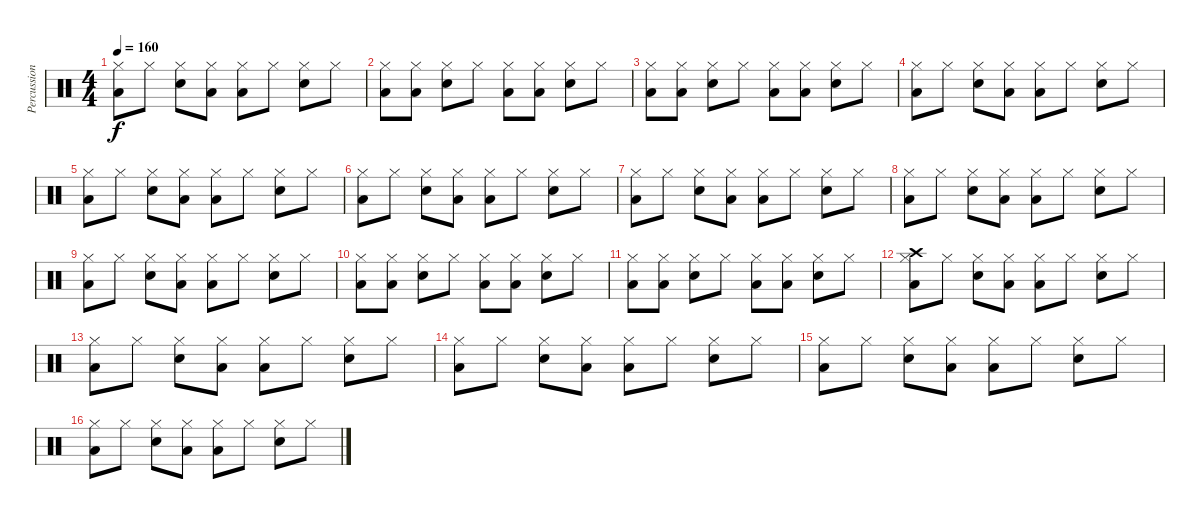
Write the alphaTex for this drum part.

\track ("Percussions" "Percussion") {instrument percussion}
\staff {score}
\articulation defaults
\ts (4 4)
\tempo 160
\clef neutral
\ks c
("Low Floor Tom (hit)" "Hi-Hat (closed)").8{dy f} "Hi-Hat (closed)".8 ("Electric Snare (hit)" "Hi-Hat (closed)").8 ("Low Floor Tom (hit)" "Hi-Hat (closed)").8 ("Low Floor Tom (hit)" "Hi-Hat (closed)").8 "Hi-Hat (closed)".8 ("Electric Snare (hit)" "Hi-Hat (closed)").8 "Hi-Hat (closed)".8 |
("Low Floor Tom (hit)" "Hi-Hat (closed)").8 ("Low Floor Tom (hit)" "Hi-Hat (closed)").8 ("Electric Snare (hit)" "Hi-Hat (closed)").8 "Hi-Hat (closed)".8 ("Low Floor Tom (hit)" "Hi-Hat (closed)").8 ("Low Floor Tom (hit)" "Hi-Hat (closed)").8 ("Electric Snare (hit)" "Hi-Hat (closed)").8 "Hi-Hat (closed)".8 |
("Low Floor Tom (hit)" "Hi-Hat (closed)").8 ("Low Floor Tom (hit)" "Hi-Hat (closed)").8 ("Electric Snare (hit)" "Hi-Hat (closed)").8 "Hi-Hat (closed)".8 ("Low Floor Tom (hit)" "Hi-Hat (closed)").8 ("Low Floor Tom (hit)" "Hi-Hat (closed)").8 ("Electric Snare (hit)" "Hi-Hat (closed)").8 "Hi-Hat (closed)".8 |
("Low Floor Tom (hit)" "Hi-Hat (closed)").8 "Hi-Hat (closed)".8 ("Electric Snare (hit)" "Hi-Hat (closed)").8 ("Low Floor Tom (hit)" "Hi-Hat (closed)").8 ("Low Floor Tom (hit)" "Hi-Hat (closed)").8 "Hi-Hat (closed)".8 ("Electric Snare (hit)" "Hi-Hat (closed)").8 "Hi-Hat (closed)".8 |
("Low Floor Tom (hit)" "Hi-Hat (closed)").8 "Hi-Hat (closed)".8 ("Electric Snare (hit)" "Hi-Hat (closed)").8 ("Low Floor Tom (hit)" "Hi-Hat (closed)").8 ("Low Floor Tom (hit)" "Hi-Hat (closed)").8 "Hi-Hat (closed)".8 ("Electric Snare (hit)" "Hi-Hat (closed)").8 "Hi-Hat (closed)".8 |
("Low Floor Tom (hit)" "Hi-Hat (closed)").8 "Hi-Hat (closed)".8 ("Electric Snare (hit)" "Hi-Hat (closed)").8 ("Low Floor Tom (hit)" "Hi-Hat (closed)").8 ("Low Floor Tom (hit)" "Hi-Hat (closed)").8 "Hi-Hat (closed)".8 ("Electric Snare (hit)" "Hi-Hat (closed)").8 "Hi-Hat (closed)".8 |
("Low Floor Tom (hit)" "Hi-Hat (closed)").8 "Hi-Hat (closed)".8 ("Electric Snare (hit)" "Hi-Hat (closed)").8 ("Low Floor Tom (hit)" "Hi-Hat (closed)").8 ("Low Floor Tom (hit)" "Hi-Hat (closed)").8 "Hi-Hat (closed)".8 ("Electric Snare (hit)" "Hi-Hat (closed)").8 "Hi-Hat (closed)".8 |
("Low Floor Tom (hit)" "Hi-Hat (closed)").8 "Hi-Hat (closed)".8 ("Electric Snare (hit)" "Hi-Hat (closed)").8 ("Low Floor Tom (hit)" "Hi-Hat (closed)").8 ("Low Floor Tom (hit)" "Hi-Hat (closed)").8 "Hi-Hat (closed)".8 ("Electric Snare (hit)" "Hi-Hat (closed)").8 "Hi-Hat (closed)".8 |
("Low Floor Tom (hit)" "Hi-Hat (closed)").8 "Hi-Hat (closed)".8 ("Electric Snare (hit)" "Hi-Hat (closed)").8 ("Low Floor Tom (hit)" "Hi-Hat (closed)").8 ("Low Floor Tom (hit)" "Hi-Hat (closed)").8 "Hi-Hat (closed)".8 ("Electric Snare (hit)" "Hi-Hat (closed)").8 "Hi-Hat (closed)".8 |
("Low Floor Tom (hit)" "Hi-Hat (closed)").8 ("Low Floor Tom (hit)" "Hi-Hat (closed)").8 ("Electric Snare (hit)" "Hi-Hat (closed)").8 "Hi-Hat (closed)".8 ("Low Floor Tom (hit)" "Hi-Hat (closed)").8 ("Low Floor Tom (hit)" "Hi-Hat (closed)").8 ("Electric Snare (hit)" "Hi-Hat (closed)").8 "Hi-Hat (closed)".8 |
("Low Floor Tom (hit)" "Hi-Hat (closed)").8 ("Low Floor Tom (hit)" "Hi-Hat (closed)").8 ("Electric Snare (hit)" "Hi-Hat (closed)").8 "Hi-Hat (closed)".8 ("Low Floor Tom (hit)" "Hi-Hat (closed)").8 ("Low Floor Tom (hit)" "Hi-Hat (closed)").8 ("Electric Snare (hit)" "Hi-Hat (closed)").8 "Hi-Hat (closed)".8 |
("Low Floor Tom (hit)" "Hi-Hat (closed)" "Crash high (hit)").8 "Hi-Hat (closed)".8 ("Electric Snare (hit)" "Hi-Hat (closed)").8 ("Low Floor Tom (hit)" "Hi-Hat (closed)").8 ("Low Floor Tom (hit)" "Hi-Hat (closed)").8 "Hi-Hat (closed)".8 ("Electric Snare (hit)" "Hi-Hat (closed)").8 "Hi-Hat (closed)".8 |
("Low Floor Tom (hit)" "Hi-Hat (closed)").8 "Hi-Hat (closed)".8 ("Electric Snare (hit)" "Hi-Hat (closed)").8 ("Low Floor Tom (hit)" "Hi-Hat (closed)").8 ("Low Floor Tom (hit)" "Hi-Hat (closed)").8 "Hi-Hat (closed)".8 ("Electric Snare (hit)" "Hi-Hat (closed)").8 "Hi-Hat (closed)".8 |
("Low Floor Tom (hit)" "Hi-Hat (closed)").8 "Hi-Hat (closed)".8 ("Electric Snare (hit)" "Hi-Hat (closed)").8 ("Low Floor Tom (hit)" "Hi-Hat (closed)").8 ("Low Floor Tom (hit)" "Hi-Hat (closed)").8 "Hi-Hat (closed)".8 ("Electric Snare (hit)" "Hi-Hat (closed)").8 "Hi-Hat (closed)".8 |
("Low Floor Tom (hit)" "Hi-Hat (closed)").8 "Hi-Hat (closed)".8 ("Electric Snare (hit)" "Hi-Hat (closed)").8 ("Low Floor Tom (hit)" "Hi-Hat (closed)").8 ("Low Floor Tom (hit)" "Hi-Hat (closed)").8 "Hi-Hat (closed)".8 ("Electric Snare (hit)" "Hi-Hat (closed)").8 "Hi-Hat (closed)".8 |
("Low Floor Tom (hit)" "Hi-Hat (closed)").8 "Hi-Hat (closed)".8 ("Electric Snare (hit)" "Hi-Hat (closed)").8 ("Low Floor Tom (hit)" "Hi-Hat (closed)").8 ("Low Floor Tom (hit)" "Hi-Hat (closed)").8 "Hi-Hat (closed)".8 ("Electric Snare (hit)" "Hi-Hat (closed)").8 "Hi-Hat (closed)".8
